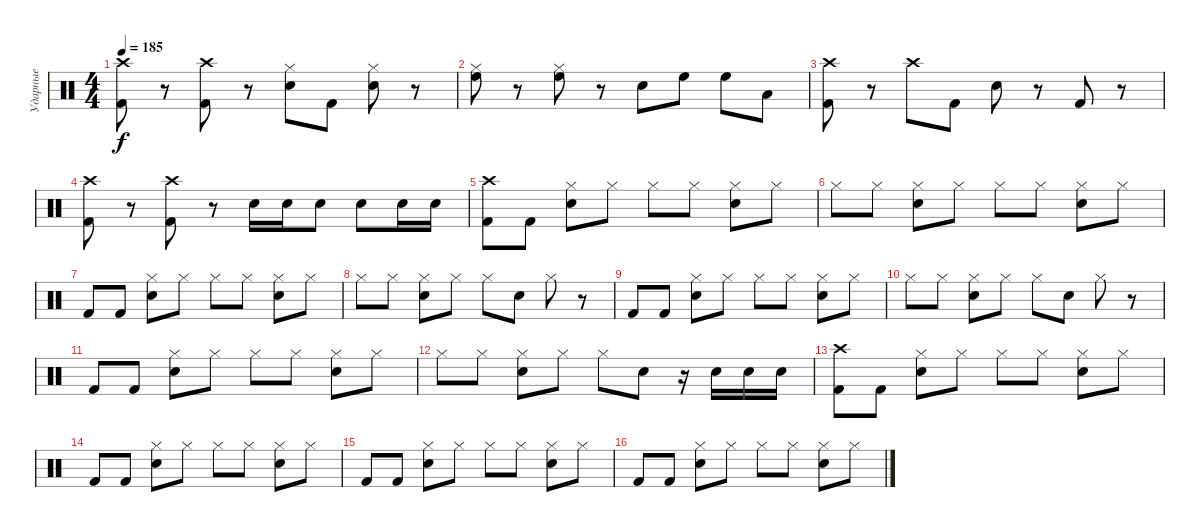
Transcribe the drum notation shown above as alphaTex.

\track ("Ударные" "Ударные") {instrument percussion}
\staff {score}
\articulation defaults
\ts (4 4)
\tempo 185
\clef neutral
\ks c
("Kick (hit) 2" "Crash high (hit)").8{dy f} r.8 ("Kick (hit) 2" "Crash high (hit)").8 r.8 ("Electric Snare (hit)" "Hi-Hat (closed)").8 "Kick (hit) 2".8 ("Electric Snare (hit)" "Hi-Hat (closed)").8 r.8 |
("High Floor Tom (hit)" "Hi-Hat (closed)").8 r.8 ("High Floor Tom (hit)" "Hi-Hat (closed)").8 r.8 "Electric Snare (hit)".8 "High Floor Tom (hit)".8 "High Floor Tom (hit)".8 "Low Tom (hit)".8 |
("Kick (hit) 2" "Crash high (hit)").8 r.8 "Crash high (hit)".8 "Kick (hit) 2".8 "Electric Snare (hit)".8 r.8 "Kick (hit) 2".8 r.8 |
("Kick (hit) 2" "Crash high (hit)").8 r.8 ("Kick (hit) 2" "Crash high (hit)").8 r.8 "Electric Snare (hit)".16 "Electric Snare (hit)".16 "Electric Snare (hit)".8 "Electric Snare (hit)".8 "Electric Snare (hit)".16 "Electric Snare (hit)".16 |
("Kick (hit) 2" "Crash high (hit)").8 "Kick (hit) 2".8 ("Electric Snare (hit)" "Hi-Hat (closed)").8 "Hi-Hat (closed)".8 "Hi-Hat (closed)".8 "Hi-Hat (closed)".8 ("Electric Snare (hit)" "Hi-Hat (closed)").8 "Hi-Hat (closed)".8 |
"Hi-Hat (closed)".8 "Hi-Hat (closed)".8 ("Electric Snare (hit)" "Hi-Hat (closed)").8 "Hi-Hat (closed)".8 "Hi-Hat (closed)".8 "Hi-Hat (closed)".8 ("Electric Snare (hit)" "Hi-Hat (closed)").8 "Hi-Hat (closed)".8 |
"Kick (hit) 2".8 "Kick (hit) 2".8 ("Electric Snare (hit)" "Hi-Hat (closed)").8 "Hi-Hat (closed)".8 "Hi-Hat (closed)".8 "Hi-Hat (closed)".8 ("Electric Snare (hit)" "Hi-Hat (closed)").8 "Hi-Hat (closed)".8 |
"Hi-Hat (closed)".8 "Hi-Hat (closed)".8 ("Electric Snare (hit)" "Hi-Hat (closed)").8 "Hi-Hat (closed)".8 "Hi-Hat (closed)".8 "Electric Snare (hit)".8 "Hi-Hat (closed)".8 r.8 |
"Kick (hit) 2".8 "Kick (hit) 2".8 ("Electric Snare (hit)" "Hi-Hat (closed)").8 "Hi-Hat (closed)".8 "Hi-Hat (closed)".8 "Hi-Hat (closed)".8 ("Electric Snare (hit)" "Hi-Hat (closed)").8 "Hi-Hat (closed)".8 |
"Hi-Hat (closed)".8 "Hi-Hat (closed)".8 ("Electric Snare (hit)" "Hi-Hat (closed)").8 "Hi-Hat (closed)".8 "Hi-Hat (closed)".8 "Electric Snare (hit)".8 "Hi-Hat (closed)".8 r.8 |
"Kick (hit) 2".8 "Kick (hit) 2".8 ("Electric Snare (hit)" "Hi-Hat (closed)").8 "Hi-Hat (closed)".8 "Hi-Hat (closed)".8 "Hi-Hat (closed)".8 ("Electric Snare (hit)" "Hi-Hat (closed)").8 "Hi-Hat (closed)".8 |
"Hi-Hat (closed)".8 "Hi-Hat (closed)".8 ("Electric Snare (hit)" "Hi-Hat (closed)").8 "Hi-Hat (closed)".8 "Hi-Hat (closed)".8 "Electric Snare (hit)".8 r.16 "Electric Snare (hit)".16 "Electric Snare (hit)".16 "Electric Snare (hit)".16 |
("Kick (hit) 2" "Crash high (hit)").8 "Kick (hit) 2".8 ("Electric Snare (hit)" "Hi-Hat (closed)").8 "Hi-Hat (closed)".8 "Hi-Hat (closed)".8 "Hi-Hat (closed)".8 ("Electric Snare (hit)" "Hi-Hat (closed)").8 "Hi-Hat (closed)".8 |
"Kick (hit) 2".8 "Kick (hit) 2".8 ("Electric Snare (hit)" "Hi-Hat (closed)").8 "Hi-Hat (closed)".8 "Hi-Hat (closed)".8 "Hi-Hat (closed)".8 ("Electric Snare (hit)" "Hi-Hat (closed)").8 "Hi-Hat (closed)".8 |
"Kick (hit) 2".8 "Kick (hit) 2".8 ("Electric Snare (hit)" "Hi-Hat (closed)").8 "Hi-Hat (closed)".8 "Hi-Hat (closed)".8 "Hi-Hat (closed)".8 ("Electric Snare (hit)" "Hi-Hat (closed)").8 "Hi-Hat (closed)".8 |
"Kick (hit) 2".8 "Kick (hit) 2".8 ("Electric Snare (hit)" "Hi-Hat (closed)").8 "Hi-Hat (closed)".8 "Hi-Hat (closed)".8 "Hi-Hat (closed)".8 ("Electric Snare (hit)" "Hi-Hat (closed)").8 "Hi-Hat (closed)".8
